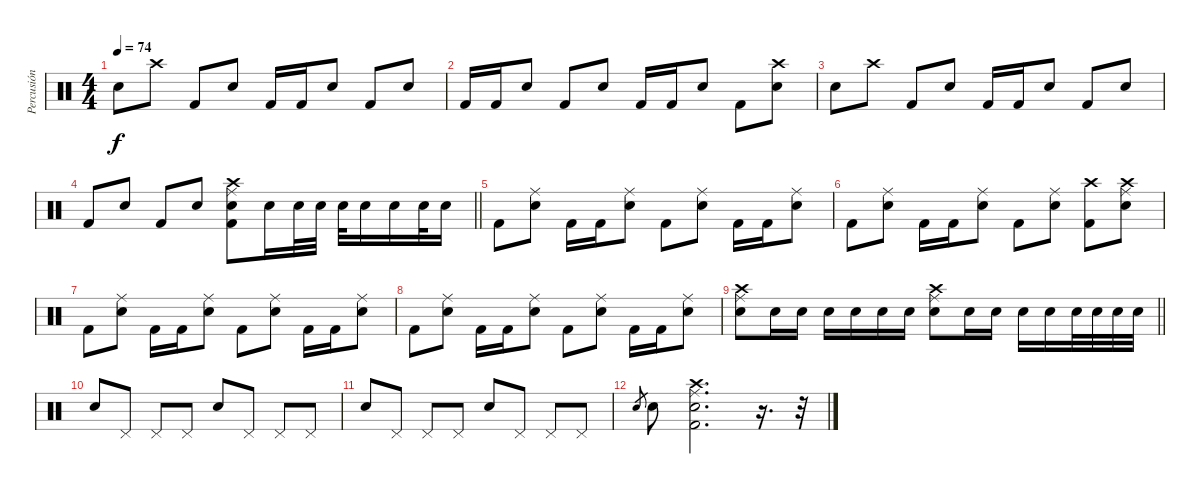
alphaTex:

\track ("Percusión" "Percusión") {instrument percussion}
\staff
\articulation defaults
\ts (4 4)
\tempo 74
\clef neutral
\ks c "Electric Snare (hit)".8{dy f} "Crash high (hit)".8 "Kick (hit) 2".8 "Electric Snare (hit)".8 "Kick (hit) 2".16 "Kick (hit) 2".16 "Electric Snare (hit)".8 "Kick (hit) 2".8 "Electric Snare (hit)".8
|
"Kick (hit) 2".16 "Kick (hit) 2".16 "Electric Snare (hit)".8 "Kick (hit) 2".8 "Electric Snare (hit)".8 "Kick (hit) 2".16 "Kick (hit) 2".16 "Electric Snare (hit)".8 "Kick (hit) 2".8 ("Crash high (hit)" "Electric Snare (hit)").8 |
"Electric Snare (hit)".8 "Crash high (hit)".8 "Kick (hit) 2".8 "Electric Snare (hit)".8 "Kick (hit) 2".16 "Kick (hit) 2".16 "Electric Snare (hit)".8 "Kick (hit) 2".8 "Electric Snare (hit)".8 |
\barLineRight lightlight "Kick (hit) 2".8 "Electric Snare (hit)".8 "Kick (hit) 2".8 "Electric Snare (hit)".8
("Ride (middle)" "Crash high (hit)" "Electric Snare (hit)" "Kick (hit) 2").8 "Electric Snare (hit)".16 "Electric Snare (hit)".32 "Electric Snare (hit)".32 "Electric Snare (hit)".32 "Electric Snare (hit)".16 "Electric Snare (hit)".16 "Electric Snare (hit)".32 "Electric Snare (hit)".16 |
"Kick (hit) 2".8 ("Ride (middle)" "Electric Snare (hit)").8 "Kick (hit) 2".16 "Kick (hit) 2".16 ("Ride (middle)" "Electric Snare (hit)").8 "Kick (hit) 2".8 ("Ride (middle)" "Electric Snare (hit)").8 "Kick (hit) 2".16 "Kick (hit) 2".16 ("Ride (middle)" "Electric Snare (hit)").8 |
"Kick (hit) 2".8 ("Ride (middle)" "Electric Snare (hit)").8 "Kick (hit) 2".16 "Kick (hit) 2".16 ("Ride (middle)" "Electric Snare (hit)").8 "Kick (hit) 2".8 ("Ride (middle)" "Electric Snare (hit)").8 ("Crash high (hit)" "Kick (hit) 2").8 ("Ride (middle)" "Crash high (hit)" "Electric Snare (hit)").8 |
"Kick (hit) 2".8 ("Ride (middle)" "Electric Snare (hit)").8 "Kick (hit) 2".16 "Kick (hit) 2".16 ("Ride (middle)" "Electric Snare (hit)").8 "Kick (hit) 2".8 ("Ride (middle)" "Electric Snare (hit)").8 "Kick (hit) 2".16 "Kick (hit) 2".16 ("Ride (middle)" "Electric Snare (hit)").8 |
"Kick (hit) 2".8 ("Ride (middle)" "Electric Snare (hit)").8 "Kick (hit) 2".16 "Kick (hit) 2".16 ("Ride (middle)" "Electric Snare (hit)").8 "Kick (hit) 2".8 ("Ride (middle)" "Electric Snare (hit)").8 "Kick (hit) 2".16 "Kick (hit) 2".16 ("Ride (middle)" "Electric Snare (hit)").8 |
\barLineRight lightlight
("Ride (middle)" "Crash high (hit)" "Electric Snare (hit)").8 "Electric Snare (hit)".16 "Electric Snare (hit)".16 "Electric Snare (hit)".16 "Electric Snare (hit)".16 "Electric Snare (hit)".16 "Electric Snare (hit)".16 ("Ride (middle)" "Crash high (hit)" "Electric Snare (hit)").8 "Electric Snare (hit)".16 "Electric Snare (hit)".16 "Electric Snare (hit)".16 "Electric Snare (hit)".16 "Electric Snare (hit)".32 "Electric Snare (hit)".32 "Electric Snare (hit)".32 "Electric Snare (hit)".32 |
"Electric Snare (hit)".8 "Pedal Hi-Hat (hit)".8 "Pedal Hi-Hat (hit)".8 "Pedal Hi-Hat (hit)".8 "Electric Snare (hit)".8 "Pedal Hi-Hat (hit)".8 "Pedal Hi-Hat (hit)".8 "Pedal Hi-Hat (hit)".8 |
"Electric Snare (hit)".8 "Pedal Hi-Hat (hit)".8 "Pedal Hi-Hat (hit)".8 "Pedal Hi-Hat (hit)".8 "Electric Snare (hit)".8 "Pedal Hi-Hat (hit)".8 "Pedal Hi-Hat (hit)".8 "Pedal Hi-Hat (hit)".8 |
"Electric Snare (hit)".8{gr} "Electric Snare (hit)".8 ("Ride (middle)" "Crash high (hit)" "Electric Snare (hit)" "Kick (hit) 2").2{d} r.16{d} r.32
